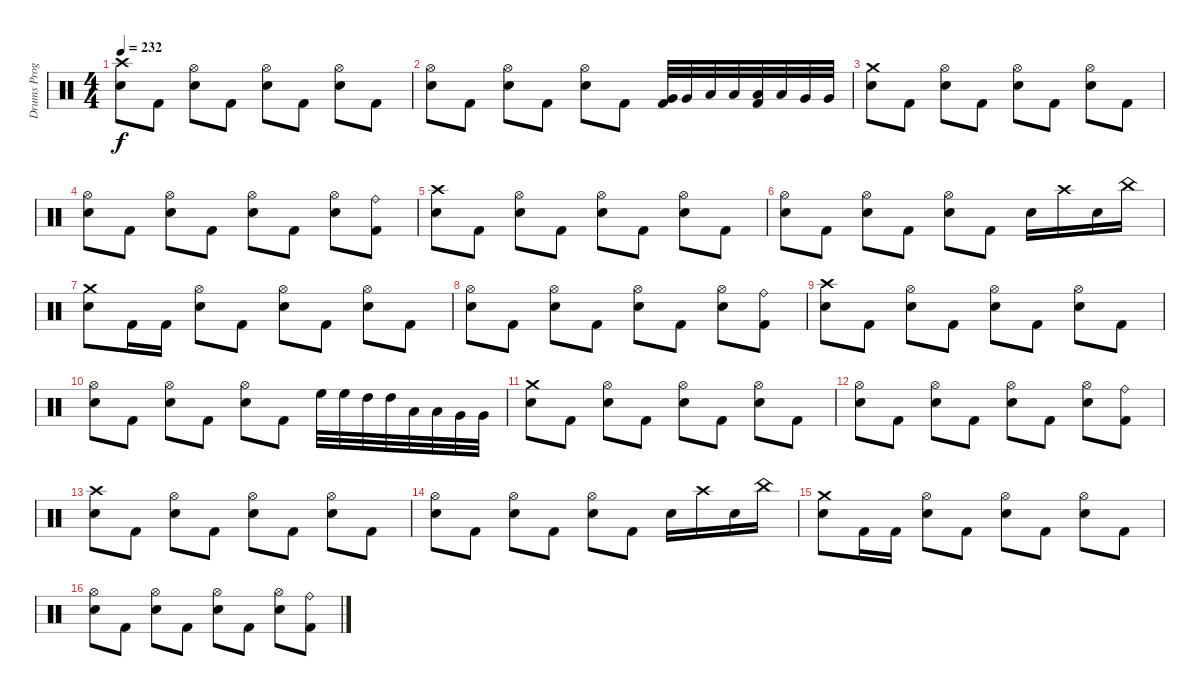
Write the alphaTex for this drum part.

\track ("Drums Programming" "Drums Prog") {instrument percussion}
\staff {score}
\articulation defaults
\ts (4 4)
\tempo 232
\clef neutral
\ks c
("Crash high (hit)" "Electric Snare (hit)").8{dy f} "Kick (hit) 2".8 ("Hi-Hat (open)" "Electric Snare (hit)").8 "Kick (hit) 2".8 ("Hi-Hat (open)" "Electric Snare (hit)").8 "Kick (hit) 2".8 ("Hi-Hat (open)" "Electric Snare (hit)").8 "Kick (hit) 2".8 |
("Hi-Hat (open)" "Electric Snare (hit)").8 "Kick (hit) 2".8 ("Hi-Hat (open)" "Electric Snare (hit)").8 "Kick (hit) 2".8 ("Hi-Hat (open)" "Electric Snare (hit)").8 "Kick (hit) 2".8 ("Very Low Tom (hit)" "Kick (hit) 2").32 "Very Low Tom (hit)".32 "Low Floor Tom (hit)".32 "Low Floor Tom (hit)".32 ("Low Tom (hit)" "Kick (hit) 2").32 "Low Tom (hit)".32 "Very Low Tom (hit)".32 "Very Low Tom (hit)".32 |
("Crash medium (hit)" "Electric Snare (hit)").8 "Kick (hit) 2".8 ("Hi-Hat (open)" "Electric Snare (hit)").8 "Kick (hit) 2".8 ("Hi-Hat (open)" "Electric Snare (hit)").8 "Kick (hit) 2".8 ("Hi-Hat (open)" "Electric Snare (hit)").8 "Kick (hit) 2".8 |
("Hi-Hat (open)" "Electric Snare (hit)").8 "Kick (hit) 2".8 ("Hi-Hat (open)" "Electric Snare (hit)").8 "Kick (hit) 2".8 ("Hi-Hat (open)" "Electric Snare (hit)").8 "Kick (hit) 2".8 ("Hi-Hat (open)" "Electric Snare (hit)").8 ("Ride (bell)" "Kick (hit) 2").8 |
("Crash high (hit)" "Electric Snare (hit)").8 "Kick (hit) 2".8 ("Hi-Hat (open)" "Electric Snare (hit)").8 "Kick (hit) 2".8 ("Hi-Hat (open)" "Electric Snare (hit)").8 "Kick (hit) 2".8 ("Hi-Hat (open)" "Electric Snare (hit)").8 "Kick (hit) 2".8 |
("Hi-Hat (open)" "Electric Snare (hit)").8 "Kick (hit) 2".8 ("Hi-Hat (open)" "Electric Snare (hit)").8 "Kick (hit) 2".8 ("Hi-Hat (open)" "Electric Snare (hit)").8 "Kick (hit) 2".8 "Electric Snare (hit)".16 "Crash high (hit)".16 "Electric Snare (hit)".16 "China (hit)".16 |
("Crash medium (hit)" "Electric Snare (hit)").8 "Kick (hit) 2".16 "Kick (hit) 2".16 ("Hi-Hat (open)" "Electric Snare (hit)").8 "Kick (hit) 2".8 ("Hi-Hat (open)" "Electric Snare (hit)").8 "Kick (hit) 2".8 ("Hi-Hat (open)" "Electric Snare (hit)").8 "Kick (hit) 2".8 |
("Hi-Hat (open)" "Electric Snare (hit)").8 "Kick (hit) 2".8 ("Hi-Hat (open)" "Electric Snare (hit)").8 "Kick (hit) 2".8 ("Hi-Hat (open)" "Electric Snare (hit)").8 "Kick (hit) 2".8 ("Hi-Hat (open)" "Electric Snare (hit)").8 ("Ride (bell)" "Kick (hit) 2").8 |
("Crash high (hit)" "Electric Snare (hit)").8 "Kick (hit) 2".8 ("Hi-Hat (open)" "Electric Snare (hit)").8 "Kick (hit) 2".8 ("Hi-Hat (open)" "Electric Snare (hit)").8 "Kick (hit) 2".8 ("Hi-Hat (open)" "Electric Snare (hit)").8 "Kick (hit) 2".8 |
("Hi-Hat (open)" "Electric Snare (hit)").8 "Kick (hit) 2".8 ("Hi-Hat (open)" "Electric Snare (hit)").8 "Kick (hit) 2".8 ("Hi-Hat (open)" "Electric Snare (hit)").8 "Kick (hit) 2".8 "High Floor Tom (hit)".32 "High Floor Tom (hit)".32 "High Tom (hit)".32 "High Tom (hit)".32 "Low Floor Tom (hit)".32 "Low Floor Tom (hit)".32 "Very Low Tom (hit)".32 "Very Low Tom (hit)".32 |
("Crash medium (hit)" "Electric Snare (hit)").8 "Kick (hit) 2".8 ("Hi-Hat (open)" "Electric Snare (hit)").8 "Kick (hit) 2".8 ("Hi-Hat (open)" "Electric Snare (hit)").8 "Kick (hit) 2".8 ("Hi-Hat (open)" "Electric Snare (hit)").8 "Kick (hit) 2".8 |
("Hi-Hat (open)" "Electric Snare (hit)").8 "Kick (hit) 2".8 ("Hi-Hat (open)" "Electric Snare (hit)").8 "Kick (hit) 2".8 ("Hi-Hat (open)" "Electric Snare (hit)").8 "Kick (hit) 2".8 ("Hi-Hat (open)" "Electric Snare (hit)").8 ("Ride (bell)" "Kick (hit) 2").8 |
("Crash high (hit)" "Electric Snare (hit)").8 "Kick (hit) 2".8 ("Hi-Hat (open)" "Electric Snare (hit)").8 "Kick (hit) 2".8 ("Hi-Hat (open)" "Electric Snare (hit)").8 "Kick (hit) 2".8 ("Hi-Hat (open)" "Electric Snare (hit)").8 "Kick (hit) 2".8 |
("Hi-Hat (open)" "Electric Snare (hit)").8 "Kick (hit) 2".8 ("Hi-Hat (open)" "Electric Snare (hit)").8 "Kick (hit) 2".8 ("Hi-Hat (open)" "Electric Snare (hit)").8 "Kick (hit) 2".8 "Electric Snare (hit)".16 "Crash high (hit)".16 "Electric Snare (hit)".16 "China (hit)".16 |
("Crash medium (hit)" "Electric Snare (hit)").8 "Kick (hit) 2".16 "Kick (hit) 2".16 ("Hi-Hat (open)" "Electric Snare (hit)").8 "Kick (hit) 2".8 ("Hi-Hat (open)" "Electric Snare (hit)").8 "Kick (hit) 2".8 ("Hi-Hat (open)" "Electric Snare (hit)").8 "Kick (hit) 2".8 |
("Hi-Hat (open)" "Electric Snare (hit)").8 "Kick (hit) 2".8 ("Hi-Hat (open)" "Electric Snare (hit)").8 "Kick (hit) 2".8 ("Hi-Hat (open)" "Electric Snare (hit)").8 "Kick (hit) 2".8 ("Hi-Hat (open)" "Electric Snare (hit)").8 ("Ride (bell)" "Kick (hit) 2").8
